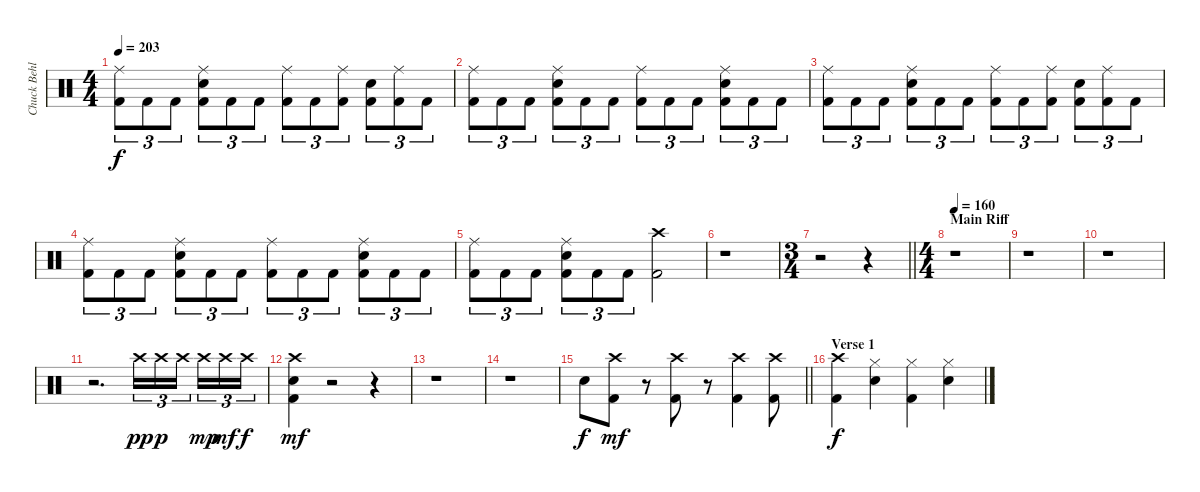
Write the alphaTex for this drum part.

\track ("Chuck Behler" "Chuck Behl") {instrument percussion}
\staff {score}
\articulation defaults
\ts (4 4)
\tempo 203
\clef neutral
\ks c
("Ride (middle)" "Kick (hit) 2").8{tu (3 2) dy f} "Kick (hit) 2".8{tu (3 2)} "Kick (hit) 2".8{tu (3 2)} ("Ride (middle)" "Snare (hit) 2" "Kick (hit) 2").8{tu (3 2)} "Kick (hit) 2".8{tu (3 2)} "Kick (hit) 2".8{tu (3 2)} ("Ride (middle)" "Kick (hit) 2").8{tu (3 2)} "Kick (hit) 2".8{tu (3 2)} ("Ride (middle)" "Kick (hit) 2").8{tu (3 2)} ("Snare (hit) 2" "Kick (hit) 2").8{tu (3 2)} ("Ride (middle)" "Kick (hit) 2").8{tu (3 2)} "Kick (hit) 2".8{tu (3 2)} |
("Ride (middle)" "Kick (hit) 2").8{tu (3 2)} "Kick (hit) 2".8{tu (3 2)} "Kick (hit) 2".8{tu (3 2)} ("Ride (middle)" "Snare (hit) 2" "Kick (hit) 2").8{tu (3 2)} "Kick (hit) 2".8{tu (3 2)} "Kick (hit) 2".8{tu (3 2)} ("Ride (middle)" "Kick (hit) 2").8{tu (3 2)} "Kick (hit) 2".8{tu (3 2)} "Kick (hit) 2".8{tu (3 2)} ("Ride (middle)" "Snare (hit) 2" "Kick (hit) 2").8{tu (3 2)} "Kick (hit) 2".8{tu (3 2)} "Kick (hit) 2".8{tu (3 2)} |
("Ride (middle)" "Kick (hit) 2").8{tu (3 2)} "Kick (hit) 2".8{tu (3 2)} "Kick (hit) 2".8{tu (3 2)} ("Ride (middle)" "Snare (hit) 2" "Kick (hit) 2").8{tu (3 2)} "Kick (hit) 2".8{tu (3 2)} "Kick (hit) 2".8{tu (3 2)} ("Ride (middle)" "Kick (hit) 2").8{tu (3 2)} "Kick (hit) 2".8{tu (3 2)} ("Ride (middle)" "Kick (hit) 2").8{tu (3 2)} ("Snare (hit) 2" "Kick (hit) 2").8{tu (3 2)} ("Ride (middle)" "Kick (hit) 2").8{tu (3 2)} "Kick (hit) 2".8{tu (3 2)} |
("Ride (middle)" "Kick (hit) 2").8{tu (3 2)} "Kick (hit) 2".8{tu (3 2)} "Kick (hit) 2".8{tu (3 2)} ("Ride (middle)" "Snare (hit) 2" "Kick (hit) 2").8{tu (3 2)} "Kick (hit) 2".8{tu (3 2)} "Kick (hit) 2".8{tu (3 2)} ("Ride (middle)" "Kick (hit) 2").8{tu (3 2)} "Kick (hit) 2".8{tu (3 2)} "Kick (hit) 2".8{tu (3 2)} ("Ride (middle)" "Snare (hit) 2" "Kick (hit) 2").8{tu (3 2)} "Kick (hit) 2".8{tu (3 2)} "Kick (hit) 2".8{tu (3 2)} |
("Ride (middle)" "Kick (hit) 2").8{tu (3 2)} "Kick (hit) 2".8{tu (3 2)} "Kick (hit) 2".8{tu (3 2)} ("Ride (middle)" "Snare (hit) 2" "Kick (hit) 2").8{tu (3 2)} "Kick (hit) 2".8{tu (3 2)} "Kick (hit) 2".8{tu (3 2)} ("Crash high (hit)" "Kick (hit) 2").2 |
r.1 |
\ts (3 4)
\barLineRight lightlight
r.2 r.4 |
\ts (4 4)
\section ("" "Main Riff")
\tempo 160
r.1 |
r.1 |
r.1 |
r.2{d} "Crash high (hit)".16{tu (3 2) dy pp} "Crash high (hit)".16{tu (3 2) dy p} "Crash high (hit)".16{tu (3 2) beam splitsecondary} "Crash high (hit)".16{tu (3 2) dy mp} "Crash high (hit)".16{tu (3 2) dy mf} "Crash high (hit)".16{tu (3 2) dy f} |
("Crash high (hit)" "Snare (hit) 2" "Kick (hit) 2").4{dy mf} r.2 r.4 |
r.1 |
r.1 |
\barLineRight lightlight "Snare (hit) 2".8{dy f}
("Crash high (hit)" "Kick (hit) 2").8{dy mf} r.8 ("Crash high (hit)" "Kick (hit) 2").8 r.8 ("Crash high (hit)" "Kick (hit) 2").4 ("Crash high (hit)" "Kick (hit) 2").8 |
\section ("" "Verse 1")
("Crash high (hit)" "Kick (hit) 2").4{dy f} ("Hi-Hat (closed)" "Snare (hit) 2").4 ("Hi-Hat (closed)" "Kick (hit) 2").4 ("Hi-Hat (closed)" "Snare (hit) 2").4
